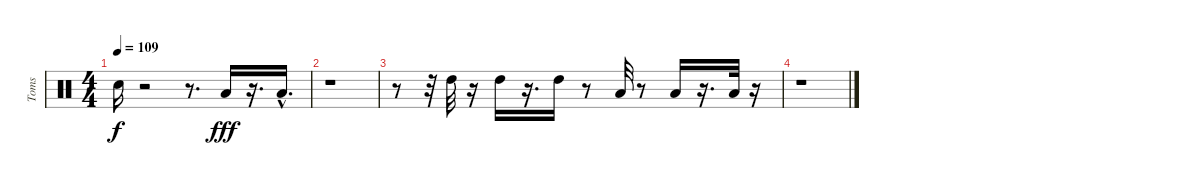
\track ("Toms            " "Toms      ") {instrument percussion}
\staff {score}
\articulation defaults
\ts (4 4)
\tempo 109
\clef neutral
\ks c "Snare (hit)"{t}.16{dy f}
r.2 r.8{d} "Low Tom (hit)".16{dy fff} r.16{d} "Low Tom (hit)"{hac}.16{d} |
r.1 |
r.8 r.32 "High Tom (hit)".32 r.16 "High Tom (hit)".16 r.16{d} "High Tom (hit)".16 r.8 "Low Tom (hit)".32 r.8 "Low Tom (hit)".16 r.16{d} "Low Floor Tom (hit)".32 r.16 |
r.1
